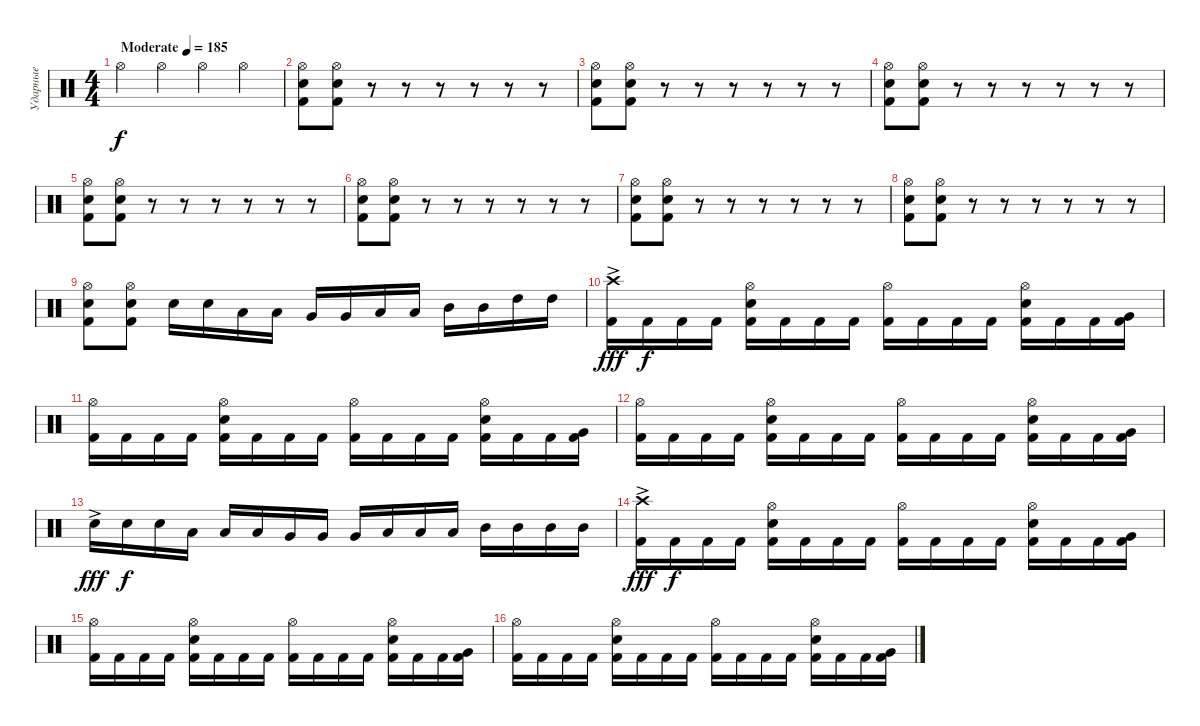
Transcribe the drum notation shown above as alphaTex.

\track ("Ударные" "Ударные") {instrument percussion}
\staff {score}
\articulation defaults
\ts (4 4)
\tempo (185 "Moderate")
\clef neutral
\ks c "Hi-Hat (open)".4{dy f} "Hi-Hat (open)".4 "Hi-Hat (open)".4 "Hi-Hat (open)".4
|
("Electric Snare (hit)" "Kick (hit) 2" "Hi-Hat (open)").8 ("Electric Snare (hit)" "Kick (hit) 2" "Hi-Hat (open)").8 r.8 r.8 r.8 r.8 r.8 r.8 |
("Electric Snare (hit)" "Kick (hit) 2" "Hi-Hat (open)").8 ("Electric Snare (hit)" "Kick (hit) 2" "Hi-Hat (open)").8 r.8 r.8 r.8 r.8 r.8 r.8 |
("Electric Snare (hit)" "Kick (hit) 2" "Hi-Hat (open)").8 ("Electric Snare (hit)" "Kick (hit) 2" "Hi-Hat (open)").8 r.8 r.8 r.8 r.8 r.8 r.8 |
("Electric Snare (hit)" "Kick (hit) 2" "Hi-Hat (open)").8 ("Electric Snare (hit)" "Kick (hit) 2" "Hi-Hat (open)").8 r.8 r.8 r.8 r.8 r.8 r.8 |
("Electric Snare (hit)" "Kick (hit) 2" "Hi-Hat (open)").8 ("Electric Snare (hit)" "Kick (hit) 2" "Hi-Hat (open)").8 r.8 r.8 r.8 r.8 r.8 r.8 |
("Electric Snare (hit)" "Kick (hit) 2" "Hi-Hat (open)").8 ("Electric Snare (hit)" "Kick (hit) 2" "Hi-Hat (open)").8 r.8 r.8 r.8 r.8 r.8 r.8 |
("Electric Snare (hit)" "Kick (hit) 2" "Hi-Hat (open)").8 ("Electric Snare (hit)" "Kick (hit) 2" "Hi-Hat (open)").8 r.8 r.8 r.8 r.8 r.8 r.8 |
("Electric Snare (hit)" "Kick (hit) 2" "Hi-Hat (open)").8 ("Electric Snare (hit)" "Kick (hit) 2" "Hi-Hat (open)").8 "Electric Snare (hit)".16 "Electric Snare (hit)".16 "Low Floor Tom (hit)".16 "Low Floor Tom (hit)".16 "Very Low Tom (hit)".16 "Very Low Tom (hit)".16 "Low Tom (hit)".16 "Low Tom (hit)".16 "Mid Tom (hit)".16 "Mid Tom (hit)".16 "High Tom (hit)".16 "High Tom (hit)".16 |
("Crash high (hit)"{ac} "Kick (hit) 2").16{dy fff} "Kick (hit) 2".16{dy f} "Kick (hit) 2".16 "Kick (hit) 2".16 ("Hi-Hat (open)" "Electric Snare (hit)" "Kick (hit) 2").16 "Kick (hit) 2".16 "Kick (hit) 2".16 "Kick (hit) 2".16 ("Hi-Hat (open)" "Kick (hit) 2").16 "Kick (hit) 2".16 "Kick (hit) 2".16 "Kick (hit) 2".16 ("Hi-Hat (open)" "Electric Snare (hit)" "Kick (hit) 2").16 "Kick (hit) 2".16 "Kick (hit) 2".16 ("Very Low Tom (hit)" "Kick (hit) 2").16 |
("Hi-Hat (open)" "Kick (hit) 2").16 "Kick (hit) 2".16 "Kick (hit) 2".16 "Kick (hit) 2".16 ("Hi-Hat (open)" "Electric Snare (hit)" "Kick (hit) 2").16 "Kick (hit) 2".16 "Kick (hit) 2".16 "Kick (hit) 2".16 ("Hi-Hat (open)" "Kick (hit) 2").16 "Kick (hit) 2".16 "Kick (hit) 2".16 "Kick (hit) 2".16 ("Hi-Hat (open)" "Electric Snare (hit)" "Kick (hit) 2").16 "Kick (hit) 2".16 "Kick (hit) 2".16 ("Very Low Tom (hit)" "Kick (hit) 2").16 |
("Hi-Hat (open)" "Kick (hit) 2").16 "Kick (hit) 2".16 "Kick (hit) 2".16 "Kick (hit) 2".16 ("Hi-Hat (open)" "Electric Snare (hit)" "Kick (hit) 2").16 "Kick (hit) 2".16 "Kick (hit) 2".16 "Kick (hit) 2".16 ("Hi-Hat (open)" "Kick (hit) 2").16 "Kick (hit) 2".16 "Kick (hit) 2".16 "Kick (hit) 2".16 ("Hi-Hat (open)" "Electric Snare (hit)" "Kick (hit) 2").16 "Kick (hit) 2".16 "Kick (hit) 2".16 ("Very Low Tom (hit)" "Kick (hit) 2").16 |
"Electric Snare (hit)"{ac}.16{dy fff} "Electric Snare (hit)".16{dy f} "Electric Snare (hit)".16 "Low Floor Tom (hit)".16 "Low Floor Tom (hit)".16 "Low Floor Tom (hit)".16 "Very Low Tom (hit)".16 "Very Low Tom (hit)".16 "Very Low Tom (hit)".16 "Low Tom (hit)".16 "Low Tom (hit)".16 "Low Tom (hit)".16 "Mid Tom (hit)".16 "Mid Tom (hit)".16 "Mid Tom (hit)".16 "Mid Tom (hit)".16 |
("Crash high (hit)"{ac} "Kick (hit) 2").16{dy fff} "Kick (hit) 2".16{dy f} "Kick (hit) 2".16 "Kick (hit) 2".16 ("Hi-Hat (open)" "Electric Snare (hit)" "Kick (hit) 2").16 "Kick (hit) 2".16 "Kick (hit) 2".16 "Kick (hit) 2".16 ("Hi-Hat (open)" "Kick (hit) 2").16 "Kick (hit) 2".16 "Kick (hit) 2".16 "Kick (hit) 2".16 ("Hi-Hat (open)" "Electric Snare (hit)" "Kick (hit) 2").16 "Kick (hit) 2".16 "Kick (hit) 2".16 ("Very Low Tom (hit)" "Kick (hit) 2").16 |
("Hi-Hat (open)" "Kick (hit) 2").16 "Kick (hit) 2".16 "Kick (hit) 2".16 "Kick (hit) 2".16 ("Hi-Hat (open)" "Electric Snare (hit)" "Kick (hit) 2").16 "Kick (hit) 2".16 "Kick (hit) 2".16 "Kick (hit) 2".16 ("Hi-Hat (open)" "Kick (hit) 2").16 "Kick (hit) 2".16 "Kick (hit) 2".16 "Kick (hit) 2".16 ("Hi-Hat (open)" "Electric Snare (hit)" "Kick (hit) 2").16 "Kick (hit) 2".16 "Kick (hit) 2".16 ("Very Low Tom (hit)" "Kick (hit) 2").16 |
("Hi-Hat (open)" "Kick (hit) 2").16 "Kick (hit) 2".16 "Kick (hit) 2".16 "Kick (hit) 2".16 ("Hi-Hat (open)" "Electric Snare (hit)" "Kick (hit) 2").16 "Kick (hit) 2".16 "Kick (hit) 2".16 "Kick (hit) 2".16 ("Hi-Hat (open)" "Kick (hit) 2").16 "Kick (hit) 2".16 "Kick (hit) 2".16 "Kick (hit) 2".16 ("Hi-Hat (open)" "Electric Snare (hit)" "Kick (hit) 2").16 "Kick (hit) 2".16 "Kick (hit) 2".16 ("Very Low Tom (hit)" "Kick (hit) 2").16
